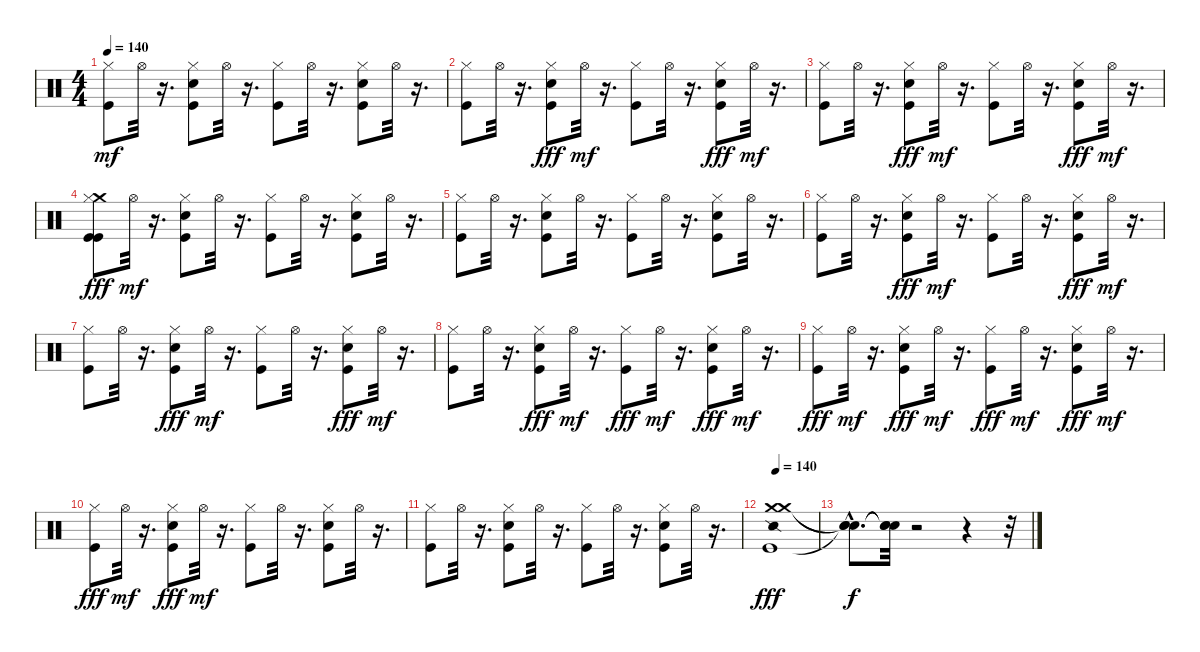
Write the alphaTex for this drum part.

\track "" {instrument percussion}
\staff {score}
\articulation defaults
\ts (4 4)
\tempo 140
\clef neutral
\ks c
("Kick (hit)" "Hi-Hat (closed)").8{dy mf} "Hi-Hat (open)".32 r.16{d} ("Kick (hit)" "Hi-Hat (closed)" "Hand Clap (hit)").8 "Hi-Hat (open)".32 r.16{d} ("Kick (hit)" "Hi-Hat (closed)").8 "Hi-Hat (open)".32 r.16{d} ("Kick (hit)" "Hi-Hat (closed)" "Hand Clap (hit)").8 "Hi-Hat (open)".32 r.16{d} |
("Kick (hit)" "Hi-Hat (closed)").8 "Hi-Hat (open)".32 r.16{d} ("Hi-Hat (closed)" "Hand Clap (hit)" "Kick (hit)").8{dy fff} "Hi-Hat (open)".32{dy mf} r.16{d} ("Kick (hit)" "Hi-Hat (closed)").8 "Hi-Hat (open)".32 r.16{d} ("Hand Clap (hit)" "Hi-Hat (closed)" "Kick (hit)").8{dy fff} "Hi-Hat (open)".32{dy mf} r.16{d} |
("Kick (hit)" "Hi-Hat (closed)").8 "Hi-Hat (open)".32 r.16{d} ("Hand Clap (hit)" "Hi-Hat (closed)" "Kick (hit)").8{dy fff} "Hi-Hat (open)".32{dy mf} r.16{d} ("Kick (hit)" "Hi-Hat (closed)").8 "Hi-Hat (open)".32 r.16{d} ("Hi-Hat (closed)" "Hand Clap (hit)" "Kick (hit)").8{dy fff} "Hi-Hat (open)".32{dy mf} r.16{d} |
("Kick (hit)" "Crash medium (hit)" "Hi-Hat (closed)" "Kick (hit)").8{dy fff} "Hi-Hat (open)".32{dy mf} r.16{d} ("Kick (hit)" "Hand Clap (hit)" "Hi-Hat (closed)").8 "Hi-Hat (open)".32 r.16{d} ("Kick (hit)" "Hi-Hat (closed)").8 "Hi-Hat (open)".32 r.16{d} ("Kick (hit)" "Hand Clap (hit)" "Hi-Hat (closed)").8 "Hi-Hat (open)".32 r.16{d} |
("Kick (hit)" "Hi-Hat (closed)").8 "Hi-Hat (open)".32 r.16{d} ("Kick (hit)" "Hand Clap (hit)" "Hi-Hat (closed)").8 "Hi-Hat (open)".32 r.16{d} ("Kick (hit)" "Hi-Hat (closed)").8 "Hi-Hat (open)".32 r.16{d} ("Kick (hit)" "Hi-Hat (closed)" "Hand Clap (hit)").8 "Hi-Hat (open)".32 r.16{d} |
("Kick (hit)" "Hi-Hat (closed)").8 "Hi-Hat (open)".32 r.16{d} ("Hand Clap (hit)" "Hi-Hat (closed)" "Kick (hit)").8{dy fff} "Hi-Hat (open)".32{dy mf} r.16{d} ("Kick (hit)" "Hi-Hat (closed)").8 "Hi-Hat (open)".32 r.16{d} ("Hi-Hat (closed)" "Hand Clap (hit)" "Kick (hit)").8{dy fff} "Hi-Hat (open)".32{dy mf} r.16{d} |
("Kick (hit)" "Hi-Hat (closed)").8 "Hi-Hat (open)".32 r.16{d} ("Hi-Hat (closed)" "Hand Clap (hit)" "Kick (hit)").8{dy fff} "Hi-Hat (open)".32{dy mf} r.16{d} ("Kick (hit)" "Hi-Hat (closed)").8 "Hi-Hat (open)".32 r.16{d} ("Hand Clap (hit)" "Hi-Hat (closed)" "Kick (hit)").8{dy fff} "Hi-Hat (open)".32{dy mf} r.16{d} |
("Kick (hit)" "Hi-Hat (closed)").8 "Hi-Hat (open)".32 r.16{d} ("Hand Clap (hit)" "Hi-Hat (closed)" "Kick (hit)").8{dy fff} "Hi-Hat (open)".32{dy mf} r.16{d} ("Hi-Hat (closed)" "Kick (hit)").8{dy fff} "Hi-Hat (open)".32{dy mf} r.16{d} ("Hand Clap (hit)" "Hi-Hat (closed)" "Kick (hit)").8{dy fff} "Hi-Hat (open)".32{dy mf} r.16{d} |
("Hi-Hat (closed)" "Kick (hit)").8{dy fff} "Hi-Hat (open)".32{dy mf} r.16{d} ("Hand Clap (hit)" "Hi-Hat (closed)" "Kick (hit)").8{dy fff} "Hi-Hat (open)".32{dy mf} r.16{d} ("Hi-Hat (closed)" "Kick (hit)").8{dy fff} "Hi-Hat (open)".32{dy mf} r.16{d} ("Hi-Hat (closed)" "Hand Clap (hit)" "Kick (hit)").8{dy fff} "Hi-Hat (open)".32{dy mf} r.16{d} |
("Hi-Hat (closed)" "Kick (hit)").8{dy fff} "Hi-Hat (open)".32{dy mf} r.16{d} ("Hi-Hat (closed)" "Hand Clap (hit)" "Kick (hit)").8{dy fff} "Hi-Hat (open)".32{dy mf} r.16{d} ("Kick (hit)" "Hi-Hat (closed)").8 "Hi-Hat (open)".32 r.16{d} ("Kick (hit)" "Hi-Hat (closed)" "Hand Clap (hit)").8 "Hi-Hat (open)".32 r.16{d} |
("Kick (hit)" "Hi-Hat (closed)").8 "Hi-Hat (open)".32 r.16{d} ("Kick (hit)" "Hi-Hat (closed)" "Hand Clap (hit)").8 "Hi-Hat (open)".32 r.16{d} ("Kick (hit)" "Hi-Hat (closed)").8 "Hi-Hat (open)".32 r.16{d} ("Kick (hit)" "Hi-Hat (closed)" "Hand Clap (hit)").8 "Hi-Hat (open)".32 r.16{d} |
\tempo 140
("Kick (hit)" "Crash medium (hit)" "Crash medium (hit)" "Snare (side stick) 2").1{dy fff} |
("Snare (hit)"{hac t} "Snare (hit)"{hac t} "Snare (hit)"{hac t}).8{d dy f} ("Snare (hit)"{t} "Snare (hit)"{t} "Snare (hit)"{t}).32 r.2 r.4 r.32
